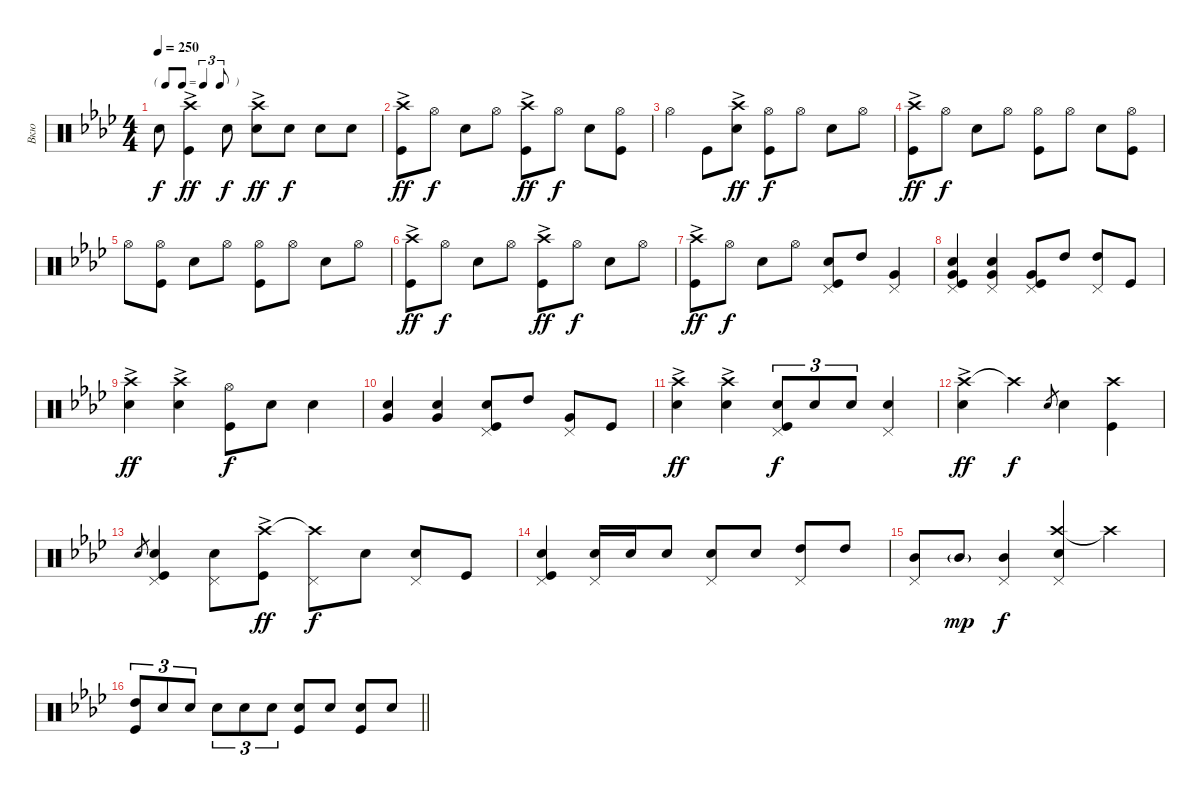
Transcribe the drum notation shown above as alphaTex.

\track ("Вкю" "Вкю") {instrument percussion}
\staff {score}
\articulation defaults
\ts (4 4)
\tf triplet8th
\tempo 250
\clef neutral
\ks ab "Snare (hit) 2".8{dy f}
("Crash high (hit)"{ac} "Kick (hit)"{ac}).4{dy ff} "Snare (hit) 2".8{dy f} ("Crash high (hit)"{ac} "Snare (hit) 2"{ac}).8{dy ff} "Snare (hit) 2".8{dy f} "Snare (hit) 2".8 "Snare (hit) 2".8 |
("Crash high (hit)"{ac} "Kick (hit)"{ac}).8{dy ff} "Hi-Hat (open)".8{dy f} "Snare (hit) 2".8 "Hi-Hat (open)".8 ("Crash high (hit)"{ac} "Kick (hit)"{ac}).8{dy ff} "Hi-Hat (open)".8{dy f} "Snare (hit) 2".8 ("Hi-Hat (open)" "Kick (hit)").8 |
"Hi-Hat (open)".4 "Kick (hit)".8 ("Crash high (hit)"{ac} "Snare (hit) 2"{ac}).8{dy ff} ("Hi-Hat (open)" "Kick (hit)").8{dy f} "Hi-Hat (open)".8 "Snare (hit) 2".8 "Hi-Hat (open)".8 |
("Crash high (hit)"{ac} "Kick (hit)"{ac}).8{dy ff} "Hi-Hat (open)".8{dy f} "Snare (hit) 2".8 "Hi-Hat (open)".8 ("Hi-Hat (open)" "Kick (hit)").8 "Hi-Hat (open)".8 "Snare (hit) 2".8 ("Hi-Hat (open)" "Kick (hit)").8 |
"Hi-Hat (open)".8 ("Hi-Hat (open)" "Kick (hit)").8 "Snare (hit) 2".8 "Hi-Hat (open)".8 ("Hi-Hat (open)" "Kick (hit)").8 "Hi-Hat (open)".8 "Snare (hit) 2".8 "Hi-Hat (open)".8 |
("Crash high (hit)"{ac} "Kick (hit)"{ac}).8{dy ff} "Hi-Hat (open)".8{dy f} "Snare (hit) 2".8 "Hi-Hat (open)".8 ("Crash high (hit)"{ac} "Kick (hit)"{ac}).8{dy ff} "Hi-Hat (open)".8{dy f} "Snare (hit) 2".8 "Hi-Hat (open)".8 |
("Crash high (hit)"{ac} "Kick (hit)"{ac}).8{dy ff} "Hi-Hat (open)".8{dy f} "Snare (hit) 2".8 "Hi-Hat (open)".8 ("Snare (hit) 2" "Kick (hit)" "Pedal Hi-Hat (hit)").8 "High Tom (hit)".8 ("Very Low Tom (hit)" "Pedal Hi-Hat (hit)").4 |
("Very Low Tom (hit)" "Snare (hit) 2" "Kick (hit)" "Pedal Hi-Hat (hit)").4 ("Very Low Tom (hit)" "Snare (hit) 2" "Pedal Hi-Hat (hit)").4 ("Very Low Tom (hit)" "Kick (hit)" "Pedal Hi-Hat (hit)").8 "High Tom (hit)".8 ("High Tom (hit)" "Pedal Hi-Hat (hit)").8 "Kick (hit)".8 |
("Crash high (hit)"{ac} "Snare (hit) 2"{ac}).4{dy ff} ("Crash high (hit)"{ac} "Snare (hit) 2"{ac}).4 ("Hi-Hat (open)" "Kick (hit)").8{dy f} "Snare (hit) 2".8 "Snare (hit) 2".4 |
("Very Low Tom (hit)" "Snare (hit) 2").4 ("Very Low Tom (hit)" "Snare (hit) 2").4 ("Snare (hit) 2" "Kick (hit)" "Pedal Hi-Hat (hit)").8 "High Tom (hit)".8 ("Very Low Tom (hit)" "Pedal Hi-Hat (hit)").8 "Kick (hit)".8 |
("Crash high (hit)"{ac} "Snare (hit) 2"{ac}).4{dy ff} ("Crash high (hit)"{ac} "Snare (hit) 2"{ac}).4 ("Snare (hit) 2" "Kick (hit)" "Pedal Hi-Hat (hit)").8{tu (3 2) dy f} "Snare (hit) 2".8{tu (3 2)} "Snare (hit) 2".8{tu (3 2)} ("Snare (hit) 2" "Pedal Hi-Hat (hit)").4 |
("Crash high (hit)"{ac} "Snare (hit) 2"{ac}).4{dy ff} "Crash high (hit)"{t}.4{dy f} "Snare (hit) 2".8{gr} "Snare (hit) 2".4 ("Crash high (hit)" "Kick (hit)").4 |
"Snare (hit) 2".8{gr} ("Snare (hit) 2" "Kick (hit)" "Pedal Hi-Hat (hit)").4 ("Snare (hit) 2" "Pedal Hi-Hat (hit)").8 ("Crash high (hit)"{ac} "Kick (hit)"{ac}).8{dy ff} ("Crash high (hit)"{t} "Pedal Hi-Hat (hit)").8{dy f} "Snare (hit) 2".8 ("Snare (hit) 2" "Pedal Hi-Hat (hit)").8 "Kick (hit)".8 |
("Snare (hit) 2" "Kick (hit)" "Pedal Hi-Hat (hit)").4 ("Snare (hit) 2" "Pedal Hi-Hat (hit)").16 "Snare (hit) 2".16 "Snare (hit) 2".8 ("Snare (hit) 2" "Pedal Hi-Hat (hit)").8 "Snare (hit) 2".8 ("High Tom (hit)" "Pedal Hi-Hat (hit)").8 "High Tom (hit)".8 |
("Mid Tom (hit)" "Pedal Hi-Hat (hit)").8 "Mid Tom (hit)"{g}.8{dy mp} ("Mid Tom (hit)" "Pedal Hi-Hat (hit)").4{dy f} ("Crash high (hit)" "Snare (hit) 2" "Pedal Hi-Hat (hit)").4 "Crash high (hit)"{t}.4 |
\barLineRight lightlight
("High Tom (hit)" "Kick (hit)").8{tu (3 2)} "Snare (hit) 2".8{tu (3 2)} "Snare (hit) 2".8{tu (3 2)} "Snare (hit) 2".8{tu (3 2)} "Snare (hit) 2".8{tu (3 2)} "Snare (hit) 2".8{tu (3 2)} ("Snare (hit) 2" "Kick (hit)").8 "Snare (hit) 2".8 ("Snare (hit) 2" "Kick (hit)").8 "Snare (hit) 2".8
